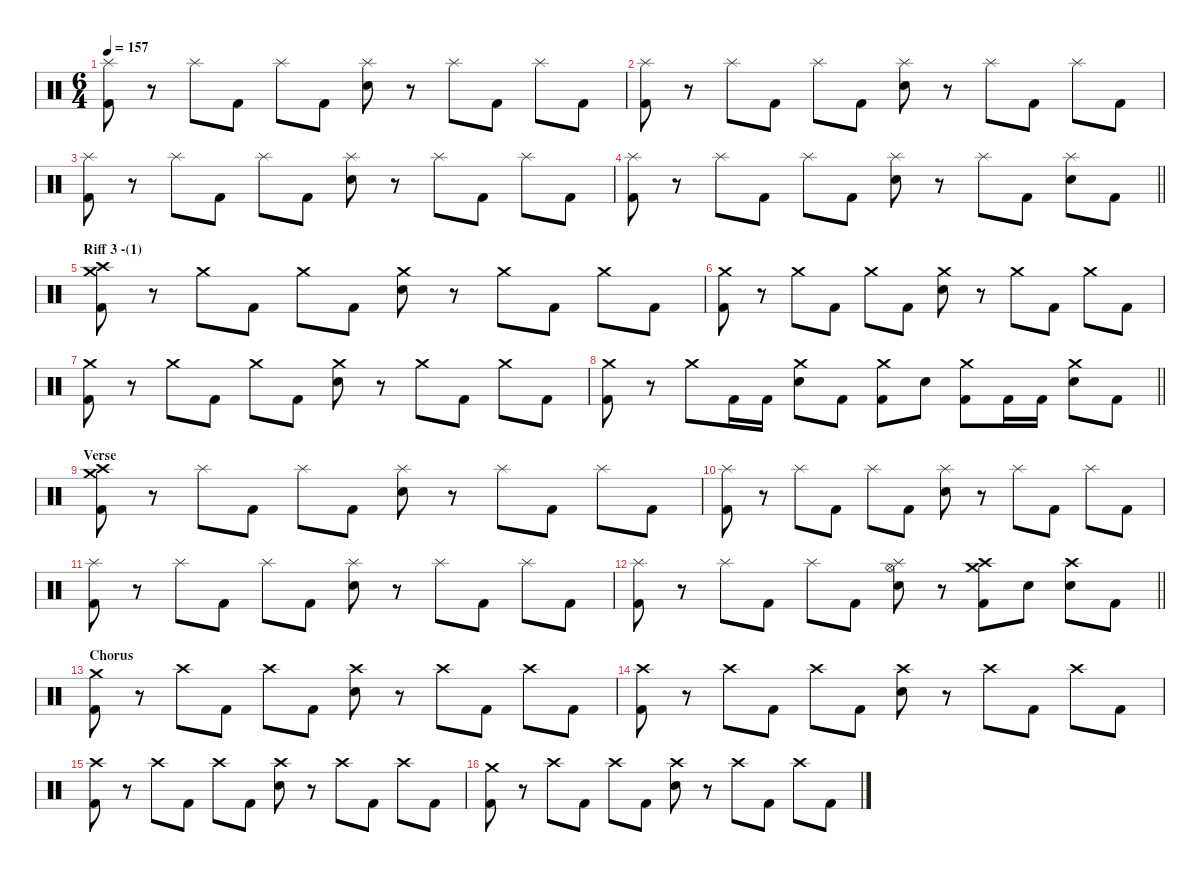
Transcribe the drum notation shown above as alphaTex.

\defaultSystemsLayout 4
\hideDynamics
\bracketExtendMode nobrackets
\singleTrackTrackNamePolicy hidden
\multiTrackTrackNamePolicy hidden
\firstSystemTrackNameMode fullname
\firstSystemTrackNameOrientation horizontal
\otherSystemsTrackNameOrientation horizontal
\track ("Drums" "drm.") {defaultSystemsLayout 4 instrument percussion}
\staff {score}
\articulation defaults
\ts (6 4)
\tempo 157
\clef neutral
\ks c
("Splash (hit)" "Kick (hit) 2").8{dy f beam Down} r.8{beam Down} "Splash (hit)".8{beam Down} "Kick (hit) 2".8{beam Down} "Splash (hit)".8{beam Down} "Kick (hit) 2".8{beam Down} ("Splash (hit)" "Snare (hit) 2").8{beam Down} r.8{beam Down} "Splash (hit)".8{beam Down} "Kick (hit) 2".8{beam Down} "Splash (hit)".8{beam Down} "Kick (hit) 2".8{beam Down} |
("Splash (hit)" "Kick (hit) 2").8{beam Down} r.8{beam Down} "Splash (hit)".8{beam Down} "Kick (hit) 2".8{beam Down} "Splash (hit)".8{beam Down} "Kick (hit) 2".8{beam Down} ("Splash (hit)" "Snare (hit) 2").8{beam Down} r.8{beam Down} "Splash (hit)".8{beam Down} "Kick (hit) 2".8{beam Down} "Splash (hit)".8{beam Down} "Kick (hit) 2".8{beam Down} |
("Splash (hit)" "Kick (hit) 2").8{beam Down} r.8{beam Down} "Splash (hit)".8{beam Down} "Kick (hit) 2".8{beam Down} "Splash (hit)".8{beam Down} "Kick (hit) 2".8{beam Down} ("Splash (hit)" "Snare (hit) 2").8{beam Down} r.8{beam Down} "Splash (hit)".8{beam Down} "Kick (hit) 2".8{beam Down} "Splash (hit)".8{beam Down} "Kick (hit) 2".8{beam Down} |
\barLineRight lightlight
("Splash (hit)" "Kick (hit) 2").8{beam Down} r.8{beam Down} "Splash (hit)".8{beam Down} "Kick (hit) 2".8{beam Down} "Splash (hit)".8{beam Down} "Kick (hit) 2".8{beam Down} ("Splash (hit)" "Snare (hit) 2").8{beam Down} r.8{beam Down} "Splash (hit)".8{beam Down} "Kick (hit) 2".8{beam Down} ("Splash (hit)" "Snare (hit) 2").8{beam Down} "Kick (hit) 2".8{beam Down} |
\section ("" "Riff 3 -(1)")
("Crash medium (hit)" "Crash high (hit)" "Kick (hit) 2").8{beam Down} r.8{beam Down} "Crash medium (hit)".8{beam Down} "Kick (hit) 2".8{beam Down} "Crash medium (hit)".8{beam Down} "Kick (hit) 2".8{beam Down} ("Crash medium (hit)" "Snare (hit) 2").8{beam Down} r.8{beam Down} "Crash medium (hit)".8{beam Down} "Kick (hit) 2".8{beam Down} "Crash medium (hit)".8{beam Down} "Kick (hit) 2".8{beam Down} |
("Crash medium (hit)" "Kick (hit) 2").8{beam Down} r.8{beam Down} "Crash medium (hit)".8{beam Down} "Kick (hit) 2".8{beam Down} "Crash medium (hit)".8{beam Down} "Kick (hit) 2".8{beam Down} ("Crash medium (hit)" "Snare (hit) 2").8{beam Down} r.8{beam Down} "Crash medium (hit)".8{beam Down} "Kick (hit) 2".8{beam Down} "Crash medium (hit)".8{beam Down} "Kick (hit) 2".8{beam Down} |
("Crash medium (hit)" "Kick (hit) 2").8{beam Down} r.8{beam Down} "Crash medium (hit)".8{beam Down} "Kick (hit) 2".8{beam Down} "Crash medium (hit)".8{beam Down} "Kick (hit) 2".8{beam Down} ("Crash medium (hit)" "Snare (hit) 2").8{beam Down} r.8{beam Down} "Crash medium (hit)".8{beam Down} "Kick (hit) 2".8{beam Down} "Crash medium (hit)".8{beam Down} "Kick (hit) 2".8{beam Down} |
\barLineRight lightlight
("Crash medium (hit)" "Kick (hit) 2").8{beam Down} r.8{beam Down} "Crash medium (hit)".8{beam Down} "Kick (hit) 2".16{beam Down} "Kick (hit) 2".16{beam Down} ("Crash medium (hit)" "Snare (hit) 2").8{beam Down} "Kick (hit) 2".8{beam Down} ("Crash medium (hit)" "Kick (hit) 2").8{beam Down} "Snare (hit) 2".8{beam Down} ("Crash medium (hit)" "Kick (hit) 2").8{beam Down} "Kick (hit) 2".16{beam Down} "Kick (hit) 2".16{beam Down} ("Crash medium (hit)" "Snare (hit) 2").8{beam Down} "Kick (hit) 2".8{beam Down} |
\section ("" "Verse")
("Crash high (hit)" "Crash medium (hit)" "Kick (hit) 2").8{beam Down} r.8{beam Down} "Splash (hit)".8{beam Down} "Kick (hit) 2".8{beam Down} "Splash (hit)".8{beam Down} "Kick (hit) 2".8{beam Down} ("Splash (hit)" "Snare (hit) 2").8{beam Down} r.8{beam Down} "Splash (hit)".8{beam Down} "Kick (hit) 2".8{beam Down} "Splash (hit)".8{beam Down} "Kick (hit) 2".8{beam Down} |
("Splash (hit)" "Kick (hit) 2").8{beam Down} r.8{beam Down} "Splash (hit)".8{beam Down} "Kick (hit) 2".8{beam Down} "Splash (hit)".8{beam Down} "Kick (hit) 2".8{beam Down} ("Splash (hit)" "Snare (hit) 2").8{beam Down} r.8{beam Down} "Splash (hit)".8{beam Down} "Kick (hit) 2".8{beam Down} "Splash (hit)".8{beam Down} "Kick (hit) 2".8{beam Down} |
("Splash (hit)" "Kick (hit) 2").8{beam Down} r.8{beam Down} "Splash (hit)".8{beam Down} "Kick (hit) 2".8{beam Down} "Splash (hit)".8{beam Down} "Kick (hit) 2".8{beam Down} ("Splash (hit)" "Snare (hit) 2").8{beam Down} r.8{beam Down} "Splash (hit)".8{beam Down} "Kick (hit) 2".8{beam Down} "Splash (hit)".8{beam Down} "Kick (hit) 2".8{beam Down} |
\barLineRight lightlight
("Splash (hit)" "Kick (hit) 2").8{beam Down} r.8{beam Down} "Splash (hit)".8{beam Down} "Kick (hit) 2".8{beam Down} "Splash (hit)".8{beam Down} "Kick (hit) 2".8{beam Down} ("Hi-Hat (open)" "Splash (hit)" "Snare (hit) 2").8{beam Down} r.8{beam Down} ("Crash high (hit)" "Crash medium (hit)" "Kick (hit) 2").8{beam Down} "Snare (hit) 2".8{beam Down} ("Crash high (hit)" "Snare (hit) 2").8{beam Down} "Kick (hit) 2".8{beam Down} |
\section ("" "Chorus")
("Crash medium (hit)" "Kick (hit) 2").8{beam Down} r.8{beam Down} "Crash high (hit)".8{beam Down} "Kick (hit) 2".8{beam Down} "Crash high (hit)".8{beam Down} "Kick (hit) 2".8{beam Down} ("Crash high (hit)" "Snare (hit) 2").8{beam Down} r.8{beam Down} "Crash high (hit)".8{beam Down} "Kick (hit) 2".8{beam Down} "Crash high (hit)".8{beam Down} "Kick (hit) 2".8{beam Down} |
("Crash high (hit)" "Kick (hit) 2").8{beam Down} r.8{beam Down} "Crash high (hit)".8{beam Down} "Kick (hit) 2".8{beam Down} "Crash high (hit)".8{beam Down} "Kick (hit) 2".8{beam Down} ("Crash high (hit)" "Snare (hit) 2").8{beam Down} r.8{beam Down} "Crash high (hit)".8{beam Down} "Kick (hit) 2".8{beam Down} "Crash high (hit)".8{beam Down} "Kick (hit) 2".8{beam Down} |
("Crash high (hit)" "Kick (hit) 2").8{beam Down} r.8{beam Down} "Crash high (hit)".8{beam Down} "Kick (hit) 2".8{beam Down} "Crash high (hit)".8{beam Down} "Kick (hit) 2".8{beam Down} ("Crash high (hit)" "Snare (hit) 2").8{beam Down} r.8{beam Down} "Crash high (hit)".8{beam Down} "Kick (hit) 2".8{beam Down} "Crash high (hit)".8{beam Down} "Kick (hit) 2".8{beam Down} |
("Crash medium (hit)" "Kick (hit) 2").8{beam Down} r.8{beam Down} "Crash high (hit)".8{beam Down} "Kick (hit) 2".8{beam Down} "Crash high (hit)".8{beam Down} "Kick (hit) 2".8{beam Down} ("Crash high (hit)" "Snare (hit) 2").8{beam Down} r.8{beam Down} "Crash high (hit)".8{beam Down} "Kick (hit) 2".8{beam Down} "Crash high (hit)".8{beam Down} "Kick (hit) 2".8{beam Down}
